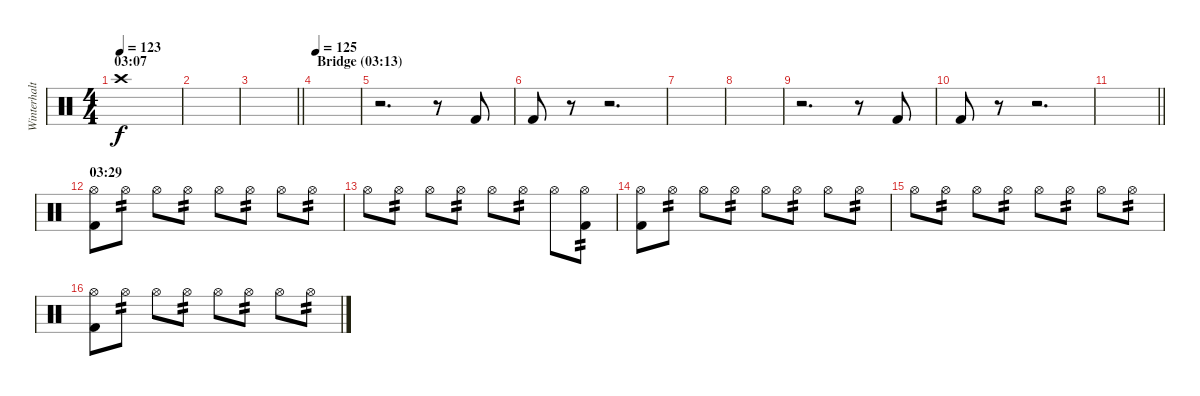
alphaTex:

\track ("Winterhalten" "Winterhalt") {instrument percussion}
\staff {score}
\articulation defaults
\ts (4 4)
\section ("" "03:07")
\tempo 123
\clef neutral
\ks c "Crash high (hit)".1{dy f}
|
|
\barLineRight lightlight
|
\section ("" "Bridge (03:13)")
\tempo 125
|
r.2{d} r.8 "Kick (hit) 2".8 |
"Kick (hit) 2".8 r.8 r.2{d} |
|
|
r.2{d} r.8 "Kick (hit) 2".8 |
"Kick (hit) 2".8 r.8 r.2{d} |
\barLineRight lightlight
|
\section ("" "03:29")
("Hi-Hat (open)" "Kick (hit) 2").8 "Hi-Hat (open)".8{tp 2} "Hi-Hat (open)".8 "Hi-Hat (open)".8{tp 2} "Hi-Hat (open)".8 "Hi-Hat (open)".8{tp 2} "Hi-Hat (open)".8 "Hi-Hat (open)".8{tp 2} |
"Hi-Hat (open)".8 "Hi-Hat (open)".8{tp 2} "Hi-Hat (open)".8 "Hi-Hat (open)".8{tp 2} "Hi-Hat (open)".8 "Hi-Hat (open)".8{tp 2} "Hi-Hat (open)".8 ("Hi-Hat (open)" "Kick (hit) 2").8{tp 2} |
("Hi-Hat (open)" "Kick (hit) 2").8 "Hi-Hat (open)".8{tp 2} "Hi-Hat (open)".8 "Hi-Hat (open)".8{tp 2} "Hi-Hat (open)".8 "Hi-Hat (open)".8{tp 2} "Hi-Hat (open)".8 "Hi-Hat (open)".8{tp 2} |
"Hi-Hat (open)".8 "Hi-Hat (open)".8{tp 2} "Hi-Hat (open)".8 "Hi-Hat (open)".8{tp 2} "Hi-Hat (open)".8 "Hi-Hat (open)".8{tp 2} "Hi-Hat (open)".8 "Hi-Hat (open)".8{tp 2} |
("Hi-Hat (open)" "Kick (hit) 2").8 "Hi-Hat (open)".8{tp 2} "Hi-Hat (open)".8 "Hi-Hat (open)".8{tp 2} "Hi-Hat (open)".8 "Hi-Hat (open)".8{tp 2} "Hi-Hat (open)".8 "Hi-Hat (open)".8{tp 2}
